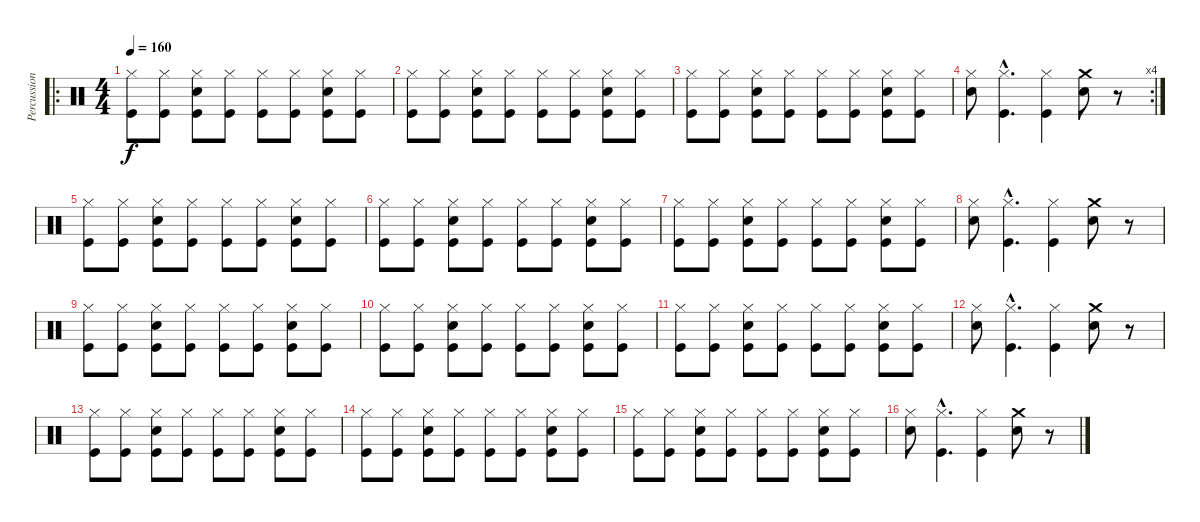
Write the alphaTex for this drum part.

\track ("Percussion" "Percussion") {instrument percussion}
\staff {score}
\articulation defaults
\ro
\ts (4 4)
\tempo 160
\clef neutral
\ks c
("Hi-Hat (closed)" "Kick (hit)").8{dy f} ("Hi-Hat (closed)" "Kick (hit)").8 ("Hi-Hat (closed)" "Snare (hit) 2" "Kick (hit)").8 ("Hi-Hat (closed)" "Kick (hit)").8 ("Hi-Hat (closed)" "Kick (hit)").8 ("Hi-Hat (closed)" "Kick (hit)").8 ("Hi-Hat (closed)" "Snare (hit) 2" "Kick (hit)").8 ("Hi-Hat (closed)" "Kick (hit)").8 |
("Hi-Hat (closed)" "Kick (hit)").8 ("Hi-Hat (closed)" "Kick (hit)").8 ("Hi-Hat (closed)" "Snare (hit) 2" "Kick (hit)").8 ("Hi-Hat (closed)" "Kick (hit)").8 ("Hi-Hat (closed)" "Kick (hit)").8 ("Hi-Hat (closed)" "Kick (hit)").8 ("Hi-Hat (closed)" "Snare (hit) 2" "Kick (hit)").8 ("Hi-Hat (closed)" "Kick (hit)").8 |
("Hi-Hat (closed)" "Kick (hit)").8 ("Hi-Hat (closed)" "Kick (hit)").8 ("Hi-Hat (closed)" "Snare (hit) 2" "Kick (hit)").8 ("Hi-Hat (closed)" "Kick (hit)").8 ("Hi-Hat (closed)" "Kick (hit)").8 ("Hi-Hat (closed)" "Kick (hit)").8 ("Hi-Hat (closed)" "Snare (hit) 2" "Kick (hit)").8 ("Hi-Hat (closed)" "Kick (hit)").8 |
\rc 4
("Hi-Hat (closed)" "Snare (hit) 2").8 ("Hi-Hat (closed)"{hac} "Kick (hit)"{hac}).4{d} ("Hi-Hat (closed)" "Kick (hit)").4 ("Crash medium (hit)" "Snare (hit) 2").8 r.8 |
("Hi-Hat (closed)" "Kick (hit)").8 ("Hi-Hat (closed)" "Kick (hit)").8 ("Hi-Hat (closed)" "Snare (hit) 2" "Kick (hit)").8 ("Hi-Hat (closed)" "Kick (hit)").8 ("Hi-Hat (closed)" "Kick (hit)").8 ("Hi-Hat (closed)" "Kick (hit)").8 ("Hi-Hat (closed)" "Snare (hit) 2" "Kick (hit)").8 ("Hi-Hat (closed)" "Kick (hit)").8 |
("Hi-Hat (closed)" "Kick (hit)").8 ("Hi-Hat (closed)" "Kick (hit)").8 ("Hi-Hat (closed)" "Snare (hit) 2" "Kick (hit)").8 ("Hi-Hat (closed)" "Kick (hit)").8 ("Hi-Hat (closed)" "Kick (hit)").8 ("Hi-Hat (closed)" "Kick (hit)").8 ("Hi-Hat (closed)" "Snare (hit) 2" "Kick (hit)").8 ("Hi-Hat (closed)" "Kick (hit)").8 |
("Hi-Hat (closed)" "Kick (hit)").8 ("Hi-Hat (closed)" "Kick (hit)").8 ("Hi-Hat (closed)" "Snare (hit) 2" "Kick (hit)").8 ("Hi-Hat (closed)" "Kick (hit)").8 ("Hi-Hat (closed)" "Kick (hit)").8 ("Hi-Hat (closed)" "Kick (hit)").8 ("Hi-Hat (closed)" "Snare (hit) 2" "Kick (hit)").8 ("Hi-Hat (closed)" "Kick (hit)").8 |
("Hi-Hat (closed)" "Snare (hit) 2").8 ("Hi-Hat (closed)"{hac} "Kick (hit)"{hac}).4{d} ("Hi-Hat (closed)" "Kick (hit)").4 ("Crash medium (hit)" "Snare (hit) 2").8 r.8 |
("Hi-Hat (closed)" "Kick (hit)").8 ("Hi-Hat (closed)" "Kick (hit)").8 ("Hi-Hat (closed)" "Snare (hit) 2" "Kick (hit)").8 ("Hi-Hat (closed)" "Kick (hit)").8 ("Hi-Hat (closed)" "Kick (hit)").8 ("Hi-Hat (closed)" "Kick (hit)").8 ("Hi-Hat (closed)" "Snare (hit) 2" "Kick (hit)").8 ("Hi-Hat (closed)" "Kick (hit)").8 |
("Hi-Hat (closed)" "Kick (hit)").8 ("Hi-Hat (closed)" "Kick (hit)").8 ("Hi-Hat (closed)" "Snare (hit) 2" "Kick (hit)").8 ("Hi-Hat (closed)" "Kick (hit)").8 ("Hi-Hat (closed)" "Kick (hit)").8 ("Hi-Hat (closed)" "Kick (hit)").8 ("Hi-Hat (closed)" "Snare (hit) 2" "Kick (hit)").8 ("Hi-Hat (closed)" "Kick (hit)").8 |
("Hi-Hat (closed)" "Kick (hit)").8 ("Hi-Hat (closed)" "Kick (hit)").8 ("Hi-Hat (closed)" "Snare (hit) 2" "Kick (hit)").8 ("Hi-Hat (closed)" "Kick (hit)").8 ("Hi-Hat (closed)" "Kick (hit)").8 ("Hi-Hat (closed)" "Kick (hit)").8 ("Hi-Hat (closed)" "Snare (hit) 2" "Kick (hit)").8 ("Hi-Hat (closed)" "Kick (hit)").8 |
("Hi-Hat (closed)" "Snare (hit) 2").8 ("Hi-Hat (closed)"{hac} "Kick (hit)"{hac}).4{d} ("Hi-Hat (closed)" "Kick (hit)").4 ("Crash medium (hit)" "Snare (hit) 2").8 r.8 |
("Hi-Hat (closed)" "Kick (hit)").8 ("Hi-Hat (closed)" "Kick (hit)").8 ("Hi-Hat (closed)" "Snare (hit) 2" "Kick (hit)").8 ("Hi-Hat (closed)" "Kick (hit)").8 ("Hi-Hat (closed)" "Kick (hit)").8 ("Hi-Hat (closed)" "Kick (hit)").8 ("Hi-Hat (closed)" "Snare (hit) 2" "Kick (hit)").8 ("Hi-Hat (closed)" "Kick (hit)").8 |
("Hi-Hat (closed)" "Kick (hit)").8 ("Hi-Hat (closed)" "Kick (hit)").8 ("Hi-Hat (closed)" "Snare (hit) 2" "Kick (hit)").8 ("Hi-Hat (closed)" "Kick (hit)").8 ("Hi-Hat (closed)" "Kick (hit)").8 ("Hi-Hat (closed)" "Kick (hit)").8 ("Hi-Hat (closed)" "Snare (hit) 2" "Kick (hit)").8 ("Hi-Hat (closed)" "Kick (hit)").8 |
("Hi-Hat (closed)" "Kick (hit)").8 ("Hi-Hat (closed)" "Kick (hit)").8 ("Hi-Hat (closed)" "Snare (hit) 2" "Kick (hit)").8 ("Hi-Hat (closed)" "Kick (hit)").8 ("Hi-Hat (closed)" "Kick (hit)").8 ("Hi-Hat (closed)" "Kick (hit)").8 ("Hi-Hat (closed)" "Snare (hit) 2" "Kick (hit)").8 ("Hi-Hat (closed)" "Kick (hit)").8 |
("Hi-Hat (closed)" "Snare (hit) 2").8 ("Hi-Hat (closed)"{hac} "Kick (hit)"{hac}).4{d} ("Hi-Hat (closed)" "Kick (hit)").4 ("Crash medium (hit)" "Snare (hit) 2").8 r.8
